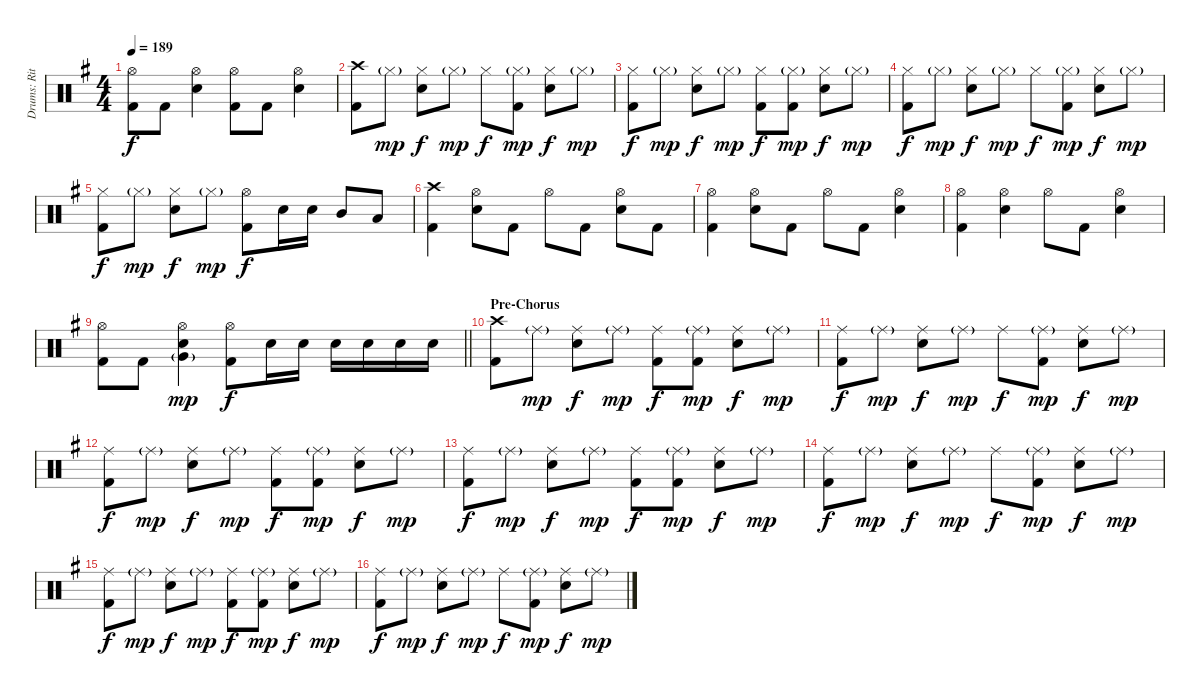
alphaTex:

\track ("Drums: Ritsu Tainaka" "Drums: Rit") {instrument percussion}
\staff {score}
\articulation defaults
\ts (4 4)
\tempo 189
\clef neutral
\ks g
("Hi-Hat (open)" "Kick (hit) 2").8{dy f} "Kick (hit) 2".8 ("Hi-Hat (open)" "Electric Snare (hit)").4 ("Hi-Hat (open)" "Kick (hit) 2").8 "Kick (hit) 2".8 ("Hi-Hat (open)" "Electric Snare (hit)").4 |
("Crash high (hit)" "Kick (hit) 2").8 "Hi-Hat (closed)"{g}.8{dy mp} ("Hi-Hat (closed)" "Electric Snare (hit)").8{dy f} "Hi-Hat (closed)"{g}.8{dy mp} "Hi-Hat (closed)".8{dy f} ("Hi-Hat (closed)"{g} "Kick (hit) 2").8{dy mp} ("Hi-Hat (closed)" "Electric Snare (hit)").8{dy f} "Hi-Hat (closed)"{g}.8{dy mp} |
("Hi-Hat (closed)" "Kick (hit) 2").8{dy f} "Hi-Hat (closed)"{g}.8{dy mp} ("Hi-Hat (closed)" "Electric Snare (hit)").8{dy f} "Hi-Hat (closed)"{g}.8{dy mp} ("Hi-Hat (closed)" "Kick (hit) 2").8{dy f} ("Hi-Hat (closed)"{g} "Kick (hit) 2").8{dy mp} ("Hi-Hat (closed)" "Electric Snare (hit)").8{dy f} "Hi-Hat (closed)"{g}.8{dy mp} |
("Hi-Hat (closed)" "Kick (hit) 2").8{dy f} "Hi-Hat (closed)"{g}.8{dy mp} ("Hi-Hat (closed)" "Electric Snare (hit)").8{dy f} "Hi-Hat (closed)"{g}.8{dy mp} "Hi-Hat (closed)".8{dy f} ("Hi-Hat (closed)"{g} "Kick (hit) 2").8{dy mp} ("Hi-Hat (closed)" "Electric Snare (hit)").8{dy f} "Hi-Hat (closed)"{g}.8{dy mp} |
("Hi-Hat (closed)" "Kick (hit) 2").8{dy f} "Hi-Hat (closed)"{g}.8{dy mp} ("Hi-Hat (closed)" "Electric Snare (hit)").8{dy f} "Hi-Hat (closed)"{g}.8{dy mp} ("Hi-Hat (open)" "Kick (hit) 2").8{dy f} "Electric Snare (hit)".16 "Electric Snare (hit)".16 "Mid Tom (hit)".8 "Low Tom (hit)".8 |
("Crash high (hit)" "Kick (hit) 2").4 ("Hi-Hat (open)" "Electric Snare (hit)").8 "Kick (hit) 2".8 "Hi-Hat (open)".8 "Kick (hit) 2".8 ("Hi-Hat (open)" "Electric Snare (hit)").8 "Kick (hit) 2".8 |
("Hi-Hat (open)" "Kick (hit) 2").4 ("Hi-Hat (open)" "Electric Snare (hit)").8 "Kick (hit) 2".8 "Hi-Hat (open)".8 "Kick (hit) 2".8 ("Hi-Hat (open)" "Electric Snare (hit)").4 |
("Hi-Hat (open)" "Kick (hit) 2").4 ("Hi-Hat (open)" "Electric Snare (hit)").4 "Hi-Hat (open)".8 "Kick (hit) 2".8 ("Hi-Hat (open)" "Electric Snare (hit)").4 |
\barLineRight lightlight
("Hi-Hat (open)" "Kick (hit) 2").8 "Kick (hit) 2".8 ("Hi-Hat (open)" "Electric Snare (hit)" "Very Low Tom (hit)"{g}).4{dy mp} ("Hi-Hat (open)" "Kick (hit) 2").8{dy f} "Electric Snare (hit)".16 "Electric Snare (hit)".16 "Electric Snare (hit)".16 "Electric Snare (hit)".16 "Electric Snare (hit)".16 "Electric Snare (hit)".16 |
\section ("" "Pre-Chorus")
("Crash high (hit)" "Kick (hit) 2").8 "Ride (middle)"{g}.8{dy mp} ("Ride (middle)" "Electric Snare (hit)").8{dy f} "Ride (middle)"{g}.8{dy mp} ("Ride (middle)" "Kick (hit) 2").8{dy f} ("Ride (middle)"{g} "Kick (hit) 2").8{dy mp} ("Ride (middle)" "Electric Snare (hit)").8{dy f} "Ride (middle)"{g}.8{dy mp} |
("Ride (middle)" "Kick (hit) 2").8{dy f} "Ride (middle)"{g}.8{dy mp} ("Ride (middle)" "Electric Snare (hit)").8{dy f} "Ride (middle)"{g}.8{dy mp} "Ride (middle)".8{dy f} ("Ride (middle)"{g} "Kick (hit) 2").8{dy mp} ("Ride (middle)" "Electric Snare (hit)").8{dy f} "Ride (middle)"{g}.8{dy mp} |
("Ride (middle)" "Kick (hit) 2").8{dy f} "Ride (middle)"{g}.8{dy mp} ("Ride (middle)" "Electric Snare (hit)").8{dy f} "Ride (middle)"{g}.8{dy mp} ("Ride (middle)" "Kick (hit) 2").8{dy f} ("Ride (middle)"{g} "Kick (hit) 2").8{dy mp} ("Ride (middle)" "Electric Snare (hit)").8{dy f} "Ride (middle)"{g}.8{dy mp} |
("Ride (middle)" "Kick (hit) 2").8{dy f} "Ride (middle)"{g}.8{dy mp} ("Ride (middle)" "Electric Snare (hit)").8{dy f} "Ride (middle)"{g}.8{dy mp} ("Ride (middle)" "Kick (hit) 2").8{dy f} ("Ride (middle)"{g} "Kick (hit) 2").8{dy mp} ("Ride (middle)" "Electric Snare (hit)").8{dy f} "Ride (middle)"{g}.8{dy mp} |
("Ride (middle)" "Kick (hit) 2").8{dy f} "Ride (middle)"{g}.8{dy mp} ("Ride (middle)" "Electric Snare (hit)").8{dy f} "Ride (middle)"{g}.8{dy mp} "Ride (middle)".8{dy f} ("Ride (middle)"{g} "Kick (hit) 2").8{dy mp} ("Ride (middle)" "Electric Snare (hit)").8{dy f} "Ride (middle)"{g}.8{dy mp} |
("Ride (middle)" "Kick (hit) 2").8{dy f} "Ride (middle)"{g}.8{dy mp} ("Ride (middle)" "Electric Snare (hit)").8{dy f} "Ride (middle)"{g}.8{dy mp} ("Ride (middle)" "Kick (hit) 2").8{dy f} ("Ride (middle)"{g} "Kick (hit) 2").8{dy mp} ("Ride (middle)" "Electric Snare (hit)").8{dy f} "Ride (middle)"{g}.8{dy mp} |
("Ride (middle)" "Kick (hit) 2").8{dy f} "Ride (middle)"{g}.8{dy mp} ("Ride (middle)" "Electric Snare (hit)").8{dy f} "Ride (middle)"{g}.8{dy mp} "Ride (middle)".8{dy f} ("Ride (middle)"{g} "Kick (hit) 2").8{dy mp} ("Ride (middle)" "Electric Snare (hit)").8{dy f} "Ride (middle)"{g}.8{dy mp}
